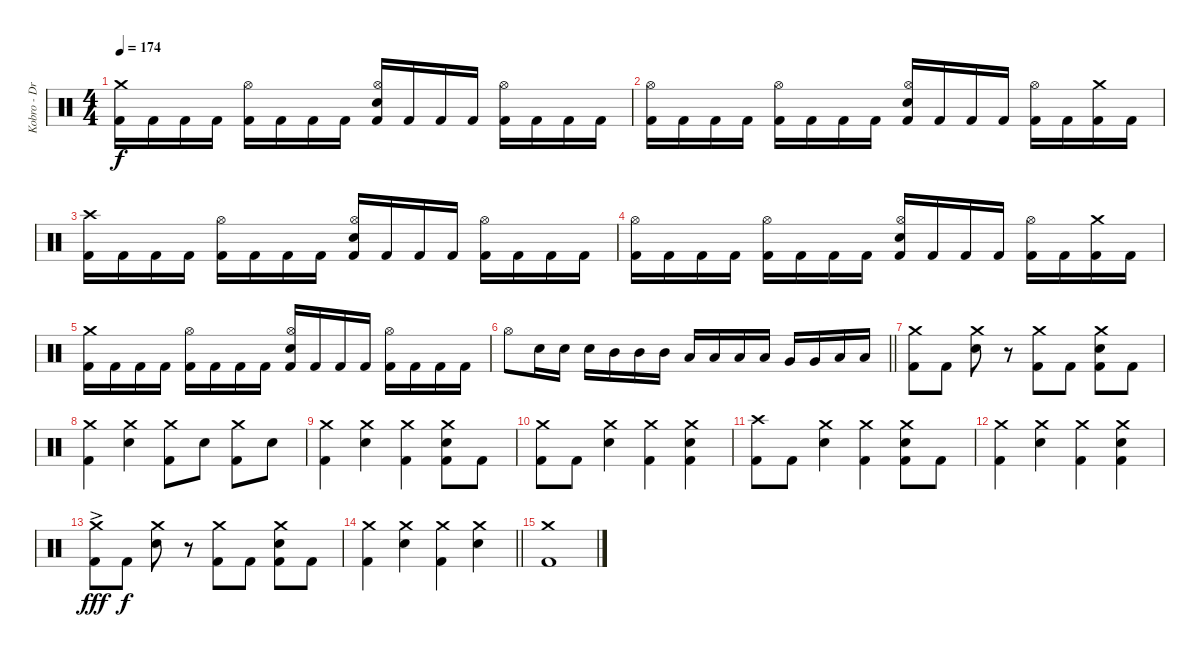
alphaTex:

\track ("Kobro - Drums + Percussion" "Kobro - Dr") {instrument percussion}
\staff {score}
\articulation defaults
\ts (4 4)
\tempo 174
\clef neutral
\ks c
("Crash medium (hit)" "Kick (hit) 2").16{dy f} "Kick (hit) 2".16 "Kick (hit) 2".16 "Kick (hit) 2".16 ("Hi-Hat (open)" "Kick (hit) 2").16 "Kick (hit) 2".16 "Kick (hit) 2".16 "Kick (hit) 2".16 ("Hi-Hat (open)" "Electric Snare (hit)" "Kick (hit) 2").16 "Kick (hit) 2".16 "Kick (hit) 2".16 "Kick (hit) 2".16 ("Hi-Hat (open)" "Kick (hit) 2").16 "Kick (hit) 2".16 "Kick (hit) 2".16 "Kick (hit) 2".16 |
("Hi-Hat (open)" "Kick (hit) 2").16 "Kick (hit) 2".16 "Kick (hit) 2".16 "Kick (hit) 2".16 ("Hi-Hat (open)" "Kick (hit) 2").16 "Kick (hit) 2".16 "Kick (hit) 2".16 "Kick (hit) 2".16 ("Hi-Hat (open)" "Electric Snare (hit)" "Kick (hit) 2").16 "Kick (hit) 2".16 "Kick (hit) 2".16 "Kick (hit) 2".16 ("Hi-Hat (open)" "Kick (hit) 2").16 "Kick (hit) 2".16 ("Crash medium (hit)" "Kick (hit) 2").16 "Kick (hit) 2".16 |
("Crash high (hit)" "Kick (hit) 2").16 "Kick (hit) 2".16 "Kick (hit) 2".16 "Kick (hit) 2".16 ("Hi-Hat (open)" "Kick (hit) 2").16 "Kick (hit) 2".16 "Kick (hit) 2".16 "Kick (hit) 2".16 ("Hi-Hat (open)" "Electric Snare (hit)" "Kick (hit) 2").16 "Kick (hit) 2".16 "Kick (hit) 2".16 "Kick (hit) 2".16 ("Hi-Hat (open)" "Kick (hit) 2").16 "Kick (hit) 2".16 "Kick (hit) 2".16 "Kick (hit) 2".16 |
("Hi-Hat (open)" "Kick (hit) 2").16 "Kick (hit) 2".16 "Kick (hit) 2".16 "Kick (hit) 2".16 ("Hi-Hat (open)" "Kick (hit) 2").16 "Kick (hit) 2".16 "Kick (hit) 2".16 "Kick (hit) 2".16 ("Hi-Hat (open)" "Electric Snare (hit)" "Kick (hit) 2").16 "Kick (hit) 2".16 "Kick (hit) 2".16 "Kick (hit) 2".16 ("Hi-Hat (open)" "Kick (hit) 2").16 "Kick (hit) 2".16 ("Crash medium (hit)" "Kick (hit) 2").16 "Kick (hit) 2".16 |
("Crash medium (hit)" "Kick (hit) 2").16 "Kick (hit) 2".16 "Kick (hit) 2".16 "Kick (hit) 2".16 ("Hi-Hat (open)" "Kick (hit) 2").16 "Kick (hit) 2".16 "Kick (hit) 2".16 "Kick (hit) 2".16 ("Hi-Hat (open)" "Electric Snare (hit)" "Kick (hit) 2").16 "Kick (hit) 2".16 "Kick (hit) 2".16 "Kick (hit) 2".16 ("Hi-Hat (open)" "Kick (hit) 2").16 "Kick (hit) 2".16 "Kick (hit) 2".16 "Kick (hit) 2".16 |
\barLineRight lightlight "Hi-Hat (open)".8 "Electric Snare (hit)".16 "Electric Snare (hit)".16 "Electric Snare (hit)".16 "Mid Tom (hit)".16 "Mid Tom (hit)".16 "Mid Tom (hit)".16 "Low Tom (hit)".16 "Low Tom (hit)".16 "Low Tom (hit)".16 "Low Tom (hit)".16 "Very Low Tom (hit)".16 "Very Low Tom (hit)".16 "Low Floor Tom (hit)".16 "Low Floor Tom (hit)".16
|
("Crash medium (hit)" "Kick (hit) 2").8 "Kick (hit) 2".8 ("Crash medium (hit)" "Electric Snare (hit)").8 r.8 ("Crash medium (hit)" "Kick (hit) 2").8 "Kick (hit) 2".8 ("Crash medium (hit)" "Electric Snare (hit)" "Kick (hit) 2").8 "Kick (hit) 2".8 |
("Crash medium (hit)" "Kick (hit) 2").4 ("Crash medium (hit)" "Electric Snare (hit)").4 ("Crash medium (hit)" "Kick (hit) 2").8 "Electric Snare (hit)".8 ("Crash medium (hit)" "Kick (hit) 2").8 "Electric Snare (hit)".8 |
("Crash medium (hit)" "Kick (hit) 2").4 ("Crash medium (hit)" "Electric Snare (hit)").4 ("Crash medium (hit)" "Kick (hit) 2").4 ("Crash medium (hit)" "Electric Snare (hit)" "Kick (hit) 2").8 "Kick (hit) 2".8 |
("Crash medium (hit)" "Kick (hit) 2").8 "Kick (hit) 2".8 ("Crash medium (hit)" "Electric Snare (hit)").4 ("Crash medium (hit)" "Kick (hit) 2").4 ("Crash medium (hit)" "Electric Snare (hit)" "Kick (hit) 2").4 |
("Crash high (hit)" "Kick (hit) 2").8 "Kick (hit) 2".8 ("Crash medium (hit)" "Electric Snare (hit)").4 ("Crash medium (hit)" "Kick (hit) 2").4 ("Crash medium (hit)" "Electric Snare (hit)" "Kick (hit) 2").8 "Kick (hit) 2".8 |
("Crash medium (hit)" "Kick (hit) 2").4 ("Crash medium (hit)" "Electric Snare (hit)").4 ("Crash medium (hit)" "Kick (hit) 2").4 ("Crash medium (hit)" "Electric Snare (hit)" "Kick (hit) 2").4 |
("Crash medium (hit)"{ac} "Kick (hit) 2").8{dy fff} "Kick (hit) 2".8{dy f} ("Crash medium (hit)" "Electric Snare (hit)").8 r.8 ("Crash medium (hit)" "Kick (hit) 2").8 "Kick (hit) 2".8 ("Crash medium (hit)" "Electric Snare (hit)" "Kick (hit) 2").8 "Kick (hit) 2".8 |
\barLineRight lightlight
("Crash medium (hit)" "Kick (hit) 2").4 ("Crash medium (hit)" "Electric Snare (hit)").4 ("Crash medium (hit)" "Kick (hit) 2").4 ("Crash medium (hit)" "Electric Snare (hit)").4 |
("Crash medium (hit)" "Kick (hit) 2").1
